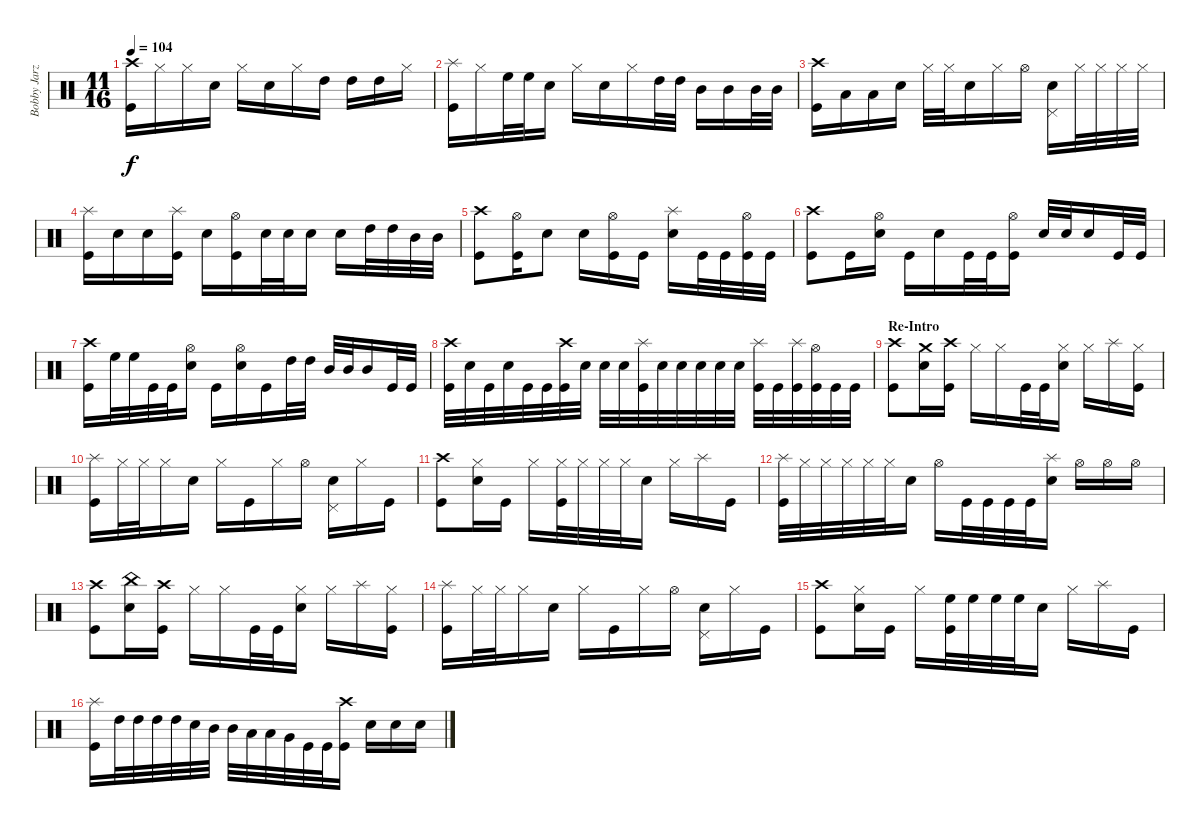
\track ("Bobby Jarzombek" "Bobby Jarz") {instrument percussion}
\staff {score}
\articulation defaults
\ts (11 16)
\tempo 104
\clef neutral
\ks c
("Crash high (hit)" "Kick (hit)").16{dy f} "Hi-Hat (closed)".16 "Hi-Hat (closed)".16 "Electric Snare (hit)".16 "Hi-Hat (closed)".16 "Electric Snare (hit)".16 "Hi-Hat (closed)".16 "High Tom (hit)".16 "High Tom (hit)".16 "High Tom (hit)".16 "Hi-Hat (closed)".16 |
("Splash (hit)" "Kick (hit)").16 "Hi-Hat (closed)".16 "High Floor Tom (hit)".32 "High Floor Tom (hit)".32 "Electric Snare (hit)".16 "Hi-Hat (closed)".16 "Electric Snare (hit)".16 "Hi-Hat (closed)".16 "High Tom (hit)".32 "High Tom (hit)".32 "Mid Tom (hit)".16 "Mid Tom (hit)".16 "Mid Tom (hit)".32 "Mid Tom (hit)".32 |
("Crash high (hit)" "Kick (hit)").16 "Low Tom (hit)".16 "Low Tom (hit)".16 "Electric Snare (hit)".16 "Hi-Hat (closed)".32 "Hi-Hat (closed)".32 "Electric Snare (hit)".16 "Hi-Hat (closed)".16 "Hi-Hat (open)".16 ("Electric Snare (hit)" "Pedal Hi-Hat (hit)").16 "Hi-Hat (closed)".32 "Hi-Hat (closed)".32 "Hi-Hat (closed)".32 "Hi-Hat (closed)".32 |
("Splash (hit)" "Kick (hit)").16 "Electric Snare (hit)".16 "Electric Snare (hit)".16 ("Splash (hit)" "Kick (hit)").16 "Electric Snare (hit)".16 ("Hi-Hat (open)" "Kick (hit)").16 "Electric Snare (hit)".32 "Electric Snare (hit)".32 "Electric Snare (hit)".16 "Electric Snare (hit)".16 "High Tom (hit)".32 "High Tom (hit)".32 "Mid Tom (hit)".32 "Mid Tom (hit)".32 |
("Crash high (hit)" "Kick (hit)").8 ("Hi-Hat (open)" "Kick (hit)").16 "Electric Snare (hit)".8 "Electric Snare (hit)".16 ("Hi-Hat (open)" "Kick (hit)").16 "Kick (hit)".16 ("Splash (hit)" "Electric Snare (hit)").16 "Kick (hit)".32 "Kick (hit)".32 ("Hi-Hat (open)" "Kick (hit)").32 "Kick (hit)".32 |
("Crash high (hit)" "Kick (hit)").8 "Kick (hit)".16 ("Hi-Hat (open)" "Electric Snare (hit)").16 "Kick (hit)".16 "Electric Snare (hit)".16 "Kick (hit)".32 "Kick (hit)".32 ("Hi-Hat (open)" "Kick (hit)").16 "Electric Snare (hit)".32 "Electric Snare (hit)".32 "Electric Snare (hit)".16 "Kick (hit)".32 "Kick (hit)".32 |
("Crash high (hit)" "Kick (hit)").16 "High Floor Tom (hit)".32 "High Floor Tom (hit)".32 "Kick (hit)".32 "Kick (hit)".32 ("Hi-Hat (open)" "Electric Snare (hit)").16 "Kick (hit)".16 ("Hi-Hat (open)" "Electric Snare (hit)").16 "Kick (hit)".16 "High Tom (hit)".32 "High Tom (hit)".32 "Mid Tom (hit)".32 "Mid Tom (hit)".32 "Mid Tom (hit)".16 "Kick (hit)".32 "Kick (hit)".32 |
("Crash high (hit)" "Kick (hit)").32 "Electric Snare (hit)".32 "Kick (hit)".32 "Electric Snare (hit)".32 "Kick (hit)".32 "Kick (hit)".32 ("Crash high (hit)" "Kick (hit)").32 "Electric Snare (hit)".32 "Electric Snare (hit)".32 "Electric Snare (hit)".32 ("Splash (hit)" "Kick (hit)").32 "Electric Snare (hit)".32 "Electric Snare (hit)".32 "Electric Snare (hit)".32 "Electric Snare (hit)".32 "Electric Snare (hit)".32 ("Splash (hit)" "Kick (hit)").32 "Kick (hit)".32 ("Splash (hit)" "Kick (hit)").32 ("Hi-Hat (open)" "Kick (hit)").32 "Kick (hit)".32 "Kick (hit)".32 |
\section ("" "Re-Intro")
("Crash high (hit)" "Kick (hit)").8 ("Crash medium (hit)" "Electric Snare (hit)").16 ("Crash high (hit)" "Kick (hit)").16 "Hi-Hat (closed)".16 "Hi-Hat (closed)".16 "Kick (hit)".32 "Kick (hit)".32 ("Hi-Hat (closed)" "Electric Snare (hit)").16 "Hi-Hat (closed)".16 "Splash (hit)".16 ("Hi-Hat (closed)" "Kick (hit)").16 |
("Splash (hit)" "Kick (hit)").16 "Hi-Hat (closed)".32 "Hi-Hat (closed)".32 "Hi-Hat (closed)".16 "Electric Snare (hit)".16 "Hi-Hat (closed)".16 "Kick (hit)".16 "Hi-Hat (closed)".16 "Hi-Hat (open)".16 ("Electric Snare (hit)" "Pedal Hi-Hat (hit)").16 "Hi-Hat (closed)".16 "Kick (hit)".16 |
("Crash high (hit)" "Kick (hit)").8 ("Hi-Hat (closed)" "Electric Snare (hit)").16 "Kick (hit)".16 "Hi-Hat (closed)".16 ("Hi-Hat (closed)" "Kick (hit)").32 "Hi-Hat (closed)".32 "Hi-Hat (closed)".32 "Hi-Hat (closed)".32 "Electric Snare (hit)".16 "Hi-Hat (closed)".16 "Splash (hit)".16 "Kick (hit)".16 |
("Splash (hit)" "Kick (hit)").32 "Hi-Hat (closed)".32 "Hi-Hat (closed)".32 "Hi-Hat (closed)".32 "Hi-Hat (closed)".32 "Hi-Hat (closed)".32 "Electric Snare (hit)".16 "Hi-Hat (open)".16 "Kick (hit)".32 "Kick (hit)".32 "Kick (hit)".32 "Kick (hit)".32 ("Splash (hit)" "Electric Snare (hit)").16 "Hi-Hat (open)".16 "Hi-Hat (open)".16 "Hi-Hat (open)".16 |
("Crash high (hit)" "Kick (hit)").8 ("China (hit)" "Electric Snare (hit)").16 ("Crash high (hit)" "Kick (hit)").16 "Hi-Hat (closed)".16 "Hi-Hat (closed)".16 "Kick (hit)".32 "Kick (hit)".32 ("Hi-Hat (closed)" "Electric Snare (hit)").16 "Hi-Hat (closed)".16 "Splash (hit)".16 ("Hi-Hat (closed)" "Kick (hit)").16 |
("Splash (hit)" "Kick (hit)").16 "Hi-Hat (closed)".32 "Hi-Hat (closed)".32 "Hi-Hat (closed)".16 "Electric Snare (hit)".16 "Hi-Hat (closed)".16 "Kick (hit)".16 "Hi-Hat (closed)".16 "Hi-Hat (open)".16 ("Electric Snare (hit)" "Pedal Hi-Hat (hit)").16 "Hi-Hat (closed)".16 "Kick (hit)".16 |
("Crash high (hit)" "Kick (hit)").8 ("Hi-Hat (closed)" "Electric Snare (hit)").16 "Kick (hit)".16 "Hi-Hat (closed)".16 ("High Floor Tom (hit)" "Kick (hit)").32 "High Floor Tom (hit)".32 "High Floor Tom (hit)".32 "High Floor Tom (hit)".32 "Electric Snare (hit)".16 "Hi-Hat (closed)".16 "Splash (hit)".16 "Kick (hit)".16 |
("Splash (hit)" "Kick (hit)").16 "High Tom (hit)".32 "High Tom (hit)".32 "High Tom (hit)".32 "High Tom (hit)".32 "Electric Snare (hit)".32 "Mid Tom (hit)".32 "Mid Tom (hit)".32 "Low Tom (hit)".32 "Low Tom (hit)".32 "Very Low Tom (hit)".32 "Kick (hit)".32 "Kick (hit)".32 ("Crash high (hit)" "Kick (hit)").16 "Electric Snare (hit)".16 "Electric Snare (hit)".16 "Electric Snare (hit)".16
